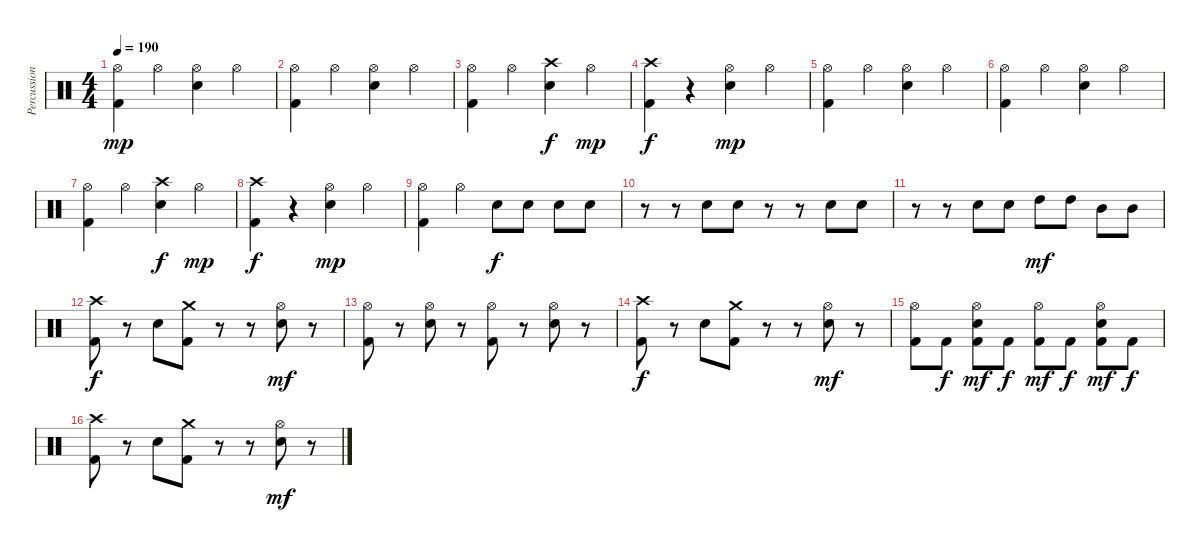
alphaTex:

\track ("Percussion" "Percussion") {instrument percussion}
\staff {score}
\articulation defaults
\ts (4 4)
\tempo 190
\clef neutral
\ks c
("Hi-Hat (open)" "Kick (hit) 2").4{dy mp} "Hi-Hat (open)".4 ("Hi-Hat (open)" "Snare (hit) 2").4 "Hi-Hat (open)".4 |
("Hi-Hat (open)" "Kick (hit) 2").4 "Hi-Hat (open)".4 ("Hi-Hat (open)" "Snare (hit) 2").4 "Hi-Hat (open)".4 |
("Hi-Hat (open)" "Kick (hit) 2").4 "Hi-Hat (open)".4 ("Crash high (hit)" "Snare (hit) 2").4{dy f} "Hi-Hat (open)".4{dy mp} |
("Crash high (hit)" "Kick (hit) 2").4{dy f} r.4 ("Hi-Hat (open)" "Snare (hit) 2").4{dy mp} "Hi-Hat (open)".4 |
("Hi-Hat (open)" "Kick (hit) 2").4 "Hi-Hat (open)".4 ("Hi-Hat (open)" "Snare (hit) 2").4 "Hi-Hat (open)".4 |
("Hi-Hat (open)" "Kick (hit) 2").4 "Hi-Hat (open)".4 ("Hi-Hat (open)" "Snare (hit) 2").4 "Hi-Hat (open)".4 |
("Hi-Hat (open)" "Kick (hit) 2").4 "Hi-Hat (open)".4 ("Crash high (hit)" "Snare (hit) 2").4{dy f} "Hi-Hat (open)".4{dy mp} |
("Crash high (hit)" "Kick (hit) 2").4{dy f} r.4 ("Hi-Hat (open)" "Snare (hit) 2").4{dy mp} "Hi-Hat (open)".4 |
("Hi-Hat (open)" "Kick (hit) 2").4 "Hi-Hat (open)".4 "Snare (hit) 2".8{dy f} "Snare (hit) 2".8 "Snare (hit) 2".8 "Snare (hit) 2".8 |
r.8 r.8 "Snare (hit) 2".8 "Snare (hit) 2".8 r.8 r.8 "Snare (hit) 2".8 "Snare (hit) 2".8 |
r.8 r.8 "Snare (hit) 2".8 "Snare (hit) 2".8 "High Tom (hit)".8{dy mf} "High Tom (hit)".8 "Mid Tom (hit)".8 "Mid Tom (hit)".8 |
("Crash high (hit)" "Kick (hit) 2").8{dy f} r.8 "Snare (hit) 2".8 ("Crash medium (hit)" "Kick (hit) 2").8 r.8 r.8 ("Hi-Hat (open)" "Snare (hit) 2").8{dy mf} r.8 |
("Hi-Hat (open)" "Kick (hit) 2").8 r.8 ("Hi-Hat (open)" "Snare (hit) 2").8 r.8 ("Hi-Hat (open)" "Kick (hit) 2").8 r.8 ("Hi-Hat (open)" "Snare (hit) 2").8 r.8 |
("Crash high (hit)" "Kick (hit) 2").8{dy f} r.8 "Snare (hit) 2".8 ("Crash medium (hit)" "Kick (hit) 2").8 r.8 r.8 ("Hi-Hat (open)" "Snare (hit) 2").8{dy mf} r.8 |
("Hi-Hat (open)" "Kick (hit) 2").8 "Kick (hit) 2".8{dy f} ("Hi-Hat (open)" "Snare (hit) 2" "Kick (hit) 2").8{dy mf} "Kick (hit) 2".8{dy f} ("Hi-Hat (open)" "Kick (hit) 2").8{dy mf} "Kick (hit) 2".8{dy f} ("Hi-Hat (open)" "Snare (hit) 2" "Kick (hit) 2").8{dy mf} "Kick (hit) 2".8{dy f} |
("Crash high (hit)" "Kick (hit) 2").8 r.8 "Snare (hit) 2".8 ("Crash medium (hit)" "Kick (hit) 2").8 r.8 r.8 ("Hi-Hat (open)" "Snare (hit) 2").8{dy mf} r.8
